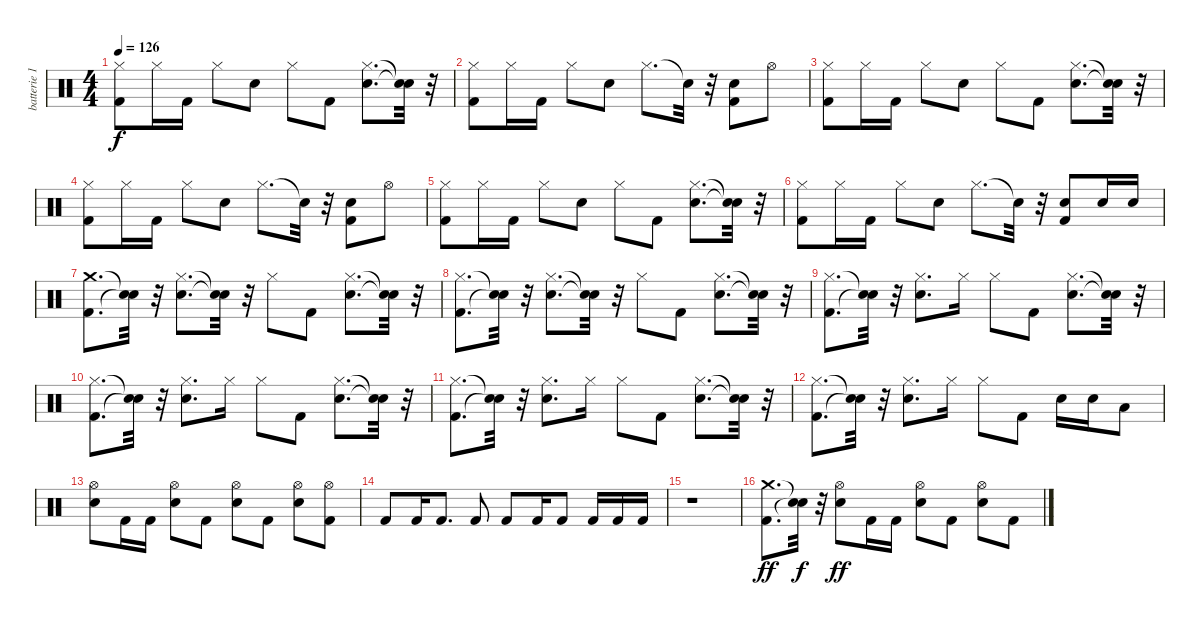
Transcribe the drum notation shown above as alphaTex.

\track ("batterie 1" "batterie 1") {instrument percussion}
\staff {score}
\articulation defaults
\ts (4 4)
\tempo 126
\clef neutral
\ks c
("Kick (hit) 2" "Hi-Hat (closed)").8{dy f} "Hi-Hat (closed)".16 "Kick (hit) 2".16 "Hi-Hat (closed)".8 "Electric Snare (hit)".8 "Hi-Hat (closed)".8 "Kick (hit) 2".8 ("Electric Snare (hit)" "Hi-Hat (closed)").8{d} ("Snare (hit)"{t} "Snare (hit)"{t}).32 r.32 |
("Kick (hit) 2" "Hi-Hat (closed)").8 "Hi-Hat (closed)".16 "Kick (hit) 2".16 "Hi-Hat (closed)".8 "Electric Snare (hit)".8 "Hi-Hat (closed)".8{d} "Snare (hit)"{t}.32 r.32 ("Kick (hit) 2" "Electric Snare (hit)").8 "Hi-Hat (open)".8 |
("Kick (hit) 2" "Hi-Hat (closed)").8 "Hi-Hat (closed)".16 "Kick (hit) 2".16 "Hi-Hat (closed)".8 "Electric Snare (hit)".8 "Hi-Hat (closed)".8 "Kick (hit) 2".8 ("Electric Snare (hit)" "Hi-Hat (closed)").8{d} ("Snare (hit)"{t} "Snare (hit)"{t}).32 r.32 |
("Kick (hit) 2" "Hi-Hat (closed)").8 "Hi-Hat (closed)".16 "Kick (hit) 2".16 "Hi-Hat (closed)".8 "Electric Snare (hit)".8 "Hi-Hat (closed)".8{d} "Snare (hit)"{t}.32 r.32 ("Kick (hit) 2" "Electric Snare (hit)").8 "Hi-Hat (open)".8 |
("Kick (hit) 2" "Hi-Hat (closed)").8 "Hi-Hat (closed)".16 "Kick (hit) 2".16 "Hi-Hat (closed)".8 "Electric Snare (hit)".8 "Hi-Hat (closed)".8 "Kick (hit) 2".8 ("Electric Snare (hit)" "Hi-Hat (closed)").8{d} ("Snare (hit)"{t} "Snare (hit)"{t}).32 r.32 |
("Kick (hit) 2" "Hi-Hat (closed)").8 "Hi-Hat (closed)".16 "Kick (hit) 2".16 "Hi-Hat (closed)".8 "Electric Snare (hit)".8 "Hi-Hat (closed)".8{d} "Snare (hit)"{t}.32 r.32 ("Kick (hit) 2" "Electric Snare (hit)").8 "Electric Snare (hit)".16 "Electric Snare (hit)".16 |
("Kick (hit) 2" "Crash medium (hit)").8{d} ("Snare (hit)"{t} "Snare (hit)"{t}).32 r.32 ("Electric Snare (hit)" "Hi-Hat (closed)").8{d} ("Snare (hit)"{t} "Snare (hit)"{t}).32 r.32 "Hi-Hat (closed)".8 "Kick (hit) 2".8 ("Electric Snare (hit)" "Hi-Hat (closed)").8{d} ("Snare (hit)"{t} "Snare (hit)"{t}).32 r.32 |
("Kick (hit) 2" "Hi-Hat (closed)").8{d} ("Snare (hit)"{t} "Snare (hit)"{t}).32 r.32 ("Electric Snare (hit)" "Hi-Hat (closed)").8{d} ("Snare (hit)"{t} "Snare (hit)"{t}).32 r.32 "Hi-Hat (closed)".8 "Kick (hit) 2".8 ("Electric Snare (hit)" "Hi-Hat (closed)").8{d} ("Snare (hit)"{t} "Snare (hit)"{t}).32 r.32 |
("Kick (hit) 2" "Hi-Hat (closed)").8{d} ("Snare (hit)"{t} "Snare (hit)"{t}).32 r.32 ("Electric Snare (hit)" "Hi-Hat (closed)").8{d} "Hi-Hat (closed)".16 "Hi-Hat (closed)".8 "Kick (hit) 2".8 ("Electric Snare (hit)" "Hi-Hat (closed)").8{d} ("Snare (hit)"{t} "Snare (hit)"{t}).32 r.32 |
("Kick (hit) 2" "Hi-Hat (closed)").8{d} ("Snare (hit)"{t} "Snare (hit)"{t}).32 r.32 ("Electric Snare (hit)" "Hi-Hat (closed)").8{d} "Hi-Hat (closed)".16 "Hi-Hat (closed)".8 "Kick (hit) 2".8 ("Electric Snare (hit)" "Hi-Hat (closed)").8{d} ("Snare (hit)"{t} "Snare (hit)"{t}).32 r.32 |
("Kick (hit) 2" "Hi-Hat (closed)").8{d} ("Snare (hit)"{t} "Snare (hit)"{t}).32 r.32 ("Electric Snare (hit)" "Hi-Hat (closed)").8{d} "Hi-Hat (closed)".16 "Hi-Hat (closed)".8 "Kick (hit) 2".8 ("Electric Snare (hit)" "Hi-Hat (closed)").8{d} ("Snare (hit)"{t} "Snare (hit)"{t}).32 r.32 |
("Kick (hit) 2" "Hi-Hat (closed)").8{d} ("Snare (hit)"{t} "Snare (hit)"{t}).32 r.32 ("Electric Snare (hit)" "Hi-Hat (closed)").8{d} "Hi-Hat (closed)".16 "Hi-Hat (closed)".8 "Kick (hit) 2".8 "Electric Snare (hit)".16 "Electric Snare (hit)".16 "Low Tom (hit)".8 |
("Electric Snare (hit)" "Hi-Hat (open)").8 "Kick (hit) 2".16 "Kick (hit) 2".16 ("Electric Snare (hit)" "Hi-Hat (open)").8 "Kick (hit) 2".8 ("Electric Snare (hit)" "Hi-Hat (open)").8 "Kick (hit) 2".8 ("Electric Snare (hit)" "Hi-Hat (open)").8 ("Kick (hit) 2" "Hi-Hat (open)").8 |
"Kick (hit) 2".8 "Kick (hit) 2".16 "Kick (hit) 2".8{d} "Kick (hit) 2".8 "Kick (hit) 2".8 "Kick (hit) 2".16 "Kick (hit) 2".8 "Kick (hit) 2".16 "Kick (hit) 2".16 "Kick (hit) 2".16 |
r.1 |
("Kick (hit) 2" "Crash medium (hit)").8{d dy ff} ("Snare (hit)"{t} "Snare (hit)"{t}).32{dy f} r.32 ("Electric Snare (hit)" "Hi-Hat (open)").8{dy ff} "Kick (hit) 2".16 "Kick (hit) 2".16 ("Electric Snare (hit)" "Hi-Hat (open)").8 "Kick (hit) 2".8 ("Electric Snare (hit)" "Hi-Hat (open)").8 "Kick (hit) 2".8
